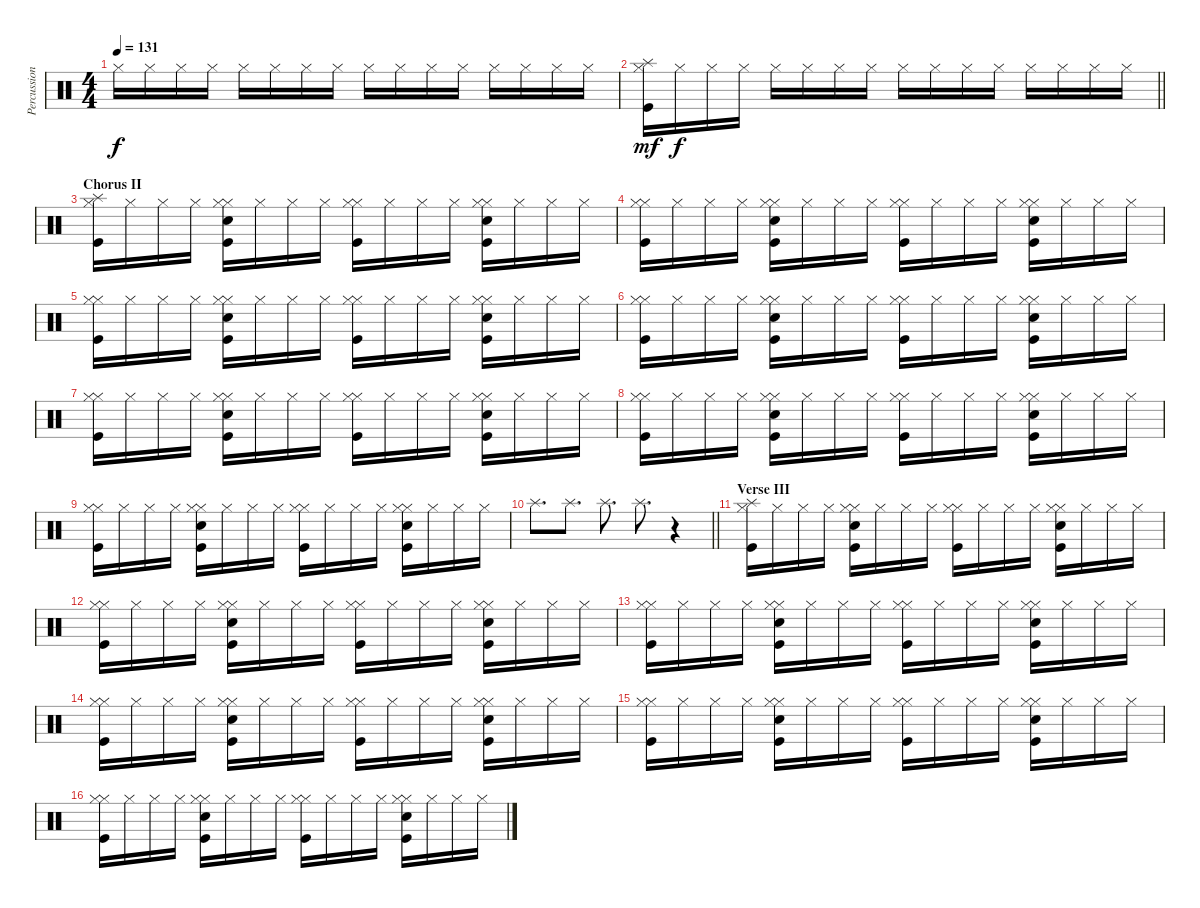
\track ("Percussion I" "Percussion") {instrument percussion}
\staff {score}
\articulation defaults
\ts (4 4)
\tempo 131
\clef neutral
\ks c "Hi-Hat (closed)".16{dy f} "Hi-Hat (closed)".16 "Hi-Hat (closed)".16 "Hi-Hat (closed)".16 "Hi-Hat (closed)".16 "Hi-Hat (closed)".16 "Hi-Hat (closed)".16 "Hi-Hat (closed)".16 "Hi-Hat (closed)".16 "Hi-Hat (closed)".16 "Hi-Hat (closed)".16 "Hi-Hat (closed)".16 "Hi-Hat (closed)".16 "Hi-Hat (closed)".16 "Hi-Hat (closed)".16 "Hi-Hat (closed)".16
|
\barLineRight lightlight
("Splash (hit)" "Hi-Hat (closed)" "Kick (hit)").16{dy mf} "Hi-Hat (closed)".16{dy f} "Hi-Hat (closed)".16 "Hi-Hat (closed)".16 "Hi-Hat (closed)".16 "Hi-Hat (closed)".16 "Hi-Hat (closed)".16 "Hi-Hat (closed)".16 "Hi-Hat (closed)".16 "Hi-Hat (closed)".16 "Hi-Hat (closed)".16 "Hi-Hat (closed)".16 "Hi-Hat (closed)".16 "Hi-Hat (closed)".16 "Hi-Hat (closed)".16 "Hi-Hat (closed)".16 |
\section ("" "Chorus II")
("Splash (hit)" "Hi-Hat (closed)" "Kick (hit)").16 "Hi-Hat (closed)".16 "Hi-Hat (closed)".16 "Hi-Hat (closed)".16 ("Hi-Hat (closed)" "Hand Clap (hit)" "Hi-Hat (closed)" "Kick (hit)").16 "Hi-Hat (closed)".16 "Hi-Hat (closed)".16 "Hi-Hat (closed)".16 ("Hi-Hat (closed)" "Hi-Hat (closed)" "Kick (hit)").16 "Hi-Hat (closed)".16 "Hi-Hat (closed)".16 "Hi-Hat (closed)".16 ("Hi-Hat (closed)" "Hand Clap (hit)" "Hi-Hat (closed)" "Kick (hit)").16 "Hi-Hat (closed)".16 "Hi-Hat (closed)".16 "Hi-Hat (closed)".16 |
("Hi-Hat (closed)" "Hi-Hat (closed)" "Kick (hit)").16 "Hi-Hat (closed)".16 "Hi-Hat (closed)".16 "Hi-Hat (closed)".16 ("Hi-Hat (closed)" "Hand Clap (hit)" "Hi-Hat (closed)" "Kick (hit)").16 "Hi-Hat (closed)".16 "Hi-Hat (closed)".16 "Hi-Hat (closed)".16 ("Hi-Hat (closed)" "Hi-Hat (closed)" "Kick (hit)").16 "Hi-Hat (closed)".16 "Hi-Hat (closed)".16 "Hi-Hat (closed)".16 ("Hi-Hat (closed)" "Hand Clap (hit)" "Hi-Hat (closed)" "Kick (hit)").16 "Hi-Hat (closed)".16 "Hi-Hat (closed)".16 "Hi-Hat (closed)".16 |
("Hi-Hat (closed)" "Hi-Hat (closed)" "Kick (hit)").16 "Hi-Hat (closed)".16 "Hi-Hat (closed)".16 "Hi-Hat (closed)".16 ("Hi-Hat (closed)" "Hand Clap (hit)" "Hi-Hat (closed)" "Kick (hit)").16 "Hi-Hat (closed)".16 "Hi-Hat (closed)".16 "Hi-Hat (closed)".16 ("Hi-Hat (closed)" "Hi-Hat (closed)" "Kick (hit)").16 "Hi-Hat (closed)".16 "Hi-Hat (closed)".16 "Hi-Hat (closed)".16 ("Hi-Hat (closed)" "Hand Clap (hit)" "Hi-Hat (closed)" "Kick (hit)").16 "Hi-Hat (closed)".16 "Hi-Hat (closed)".16 "Hi-Hat (closed)".16 |
("Hi-Hat (closed)" "Hi-Hat (closed)" "Kick (hit)").16 "Hi-Hat (closed)".16 "Hi-Hat (closed)".16 "Hi-Hat (closed)".16 ("Hi-Hat (closed)" "Hand Clap (hit)" "Hi-Hat (closed)" "Kick (hit)").16 "Hi-Hat (closed)".16 "Hi-Hat (closed)".16 "Hi-Hat (closed)".16 ("Hi-Hat (closed)" "Hi-Hat (closed)" "Kick (hit)").16 "Hi-Hat (closed)".16 "Hi-Hat (closed)".16 "Hi-Hat (closed)".16 ("Hi-Hat (closed)" "Hand Clap (hit)" "Hi-Hat (closed)" "Kick (hit)").16 "Hi-Hat (closed)".16 "Hi-Hat (closed)".16 "Hi-Hat (closed)".16 |
("Hi-Hat (closed)" "Hi-Hat (closed)" "Kick (hit)").16 "Hi-Hat (closed)".16 "Hi-Hat (closed)".16 "Hi-Hat (closed)".16 ("Hi-Hat (closed)" "Hand Clap (hit)" "Hi-Hat (closed)" "Kick (hit)").16 "Hi-Hat (closed)".16 "Hi-Hat (closed)".16 "Hi-Hat (closed)".16 ("Hi-Hat (closed)" "Hi-Hat (closed)" "Kick (hit)").16 "Hi-Hat (closed)".16 "Hi-Hat (closed)".16 "Hi-Hat (closed)".16 ("Hi-Hat (closed)" "Hand Clap (hit)" "Hi-Hat (closed)" "Kick (hit)").16 "Hi-Hat (closed)".16 "Hi-Hat (closed)".16 "Hi-Hat (closed)".16 |
("Hi-Hat (closed)" "Hi-Hat (closed)" "Kick (hit)").16 "Hi-Hat (closed)".16 "Hi-Hat (closed)".16 "Hi-Hat (closed)".16 ("Hi-Hat (closed)" "Hand Clap (hit)" "Hi-Hat (closed)" "Kick (hit)").16 "Hi-Hat (closed)".16 "Hi-Hat (closed)".16 "Hi-Hat (closed)".16 ("Hi-Hat (closed)" "Hi-Hat (closed)" "Kick (hit)").16 "Hi-Hat (closed)".16 "Hi-Hat (closed)".16 "Hi-Hat (closed)".16 ("Hi-Hat (closed)" "Hand Clap (hit)" "Hi-Hat (closed)" "Kick (hit)").16 "Hi-Hat (closed)".16 "Hi-Hat (closed)".16 "Hi-Hat (closed)".16 |
("Hi-Hat (closed)" "Hi-Hat (closed)" "Kick (hit)").16 "Hi-Hat (closed)".16 "Hi-Hat (closed)".16 "Hi-Hat (closed)".16 ("Hi-Hat (closed)" "Hand Clap (hit)" "Hi-Hat (closed)" "Kick (hit)").16 "Hi-Hat (closed)".16 "Hi-Hat (closed)".16 "Hi-Hat (closed)".16 ("Hi-Hat (closed)" "Hi-Hat (closed)" "Kick (hit)").16 "Hi-Hat (closed)".16 "Hi-Hat (closed)".16 "Hi-Hat (closed)".16 ("Hi-Hat (closed)" "Hand Clap (hit)" "Hi-Hat (closed)" "Kick (hit)").16 "Hi-Hat (closed)".16 "Hi-Hat (closed)".16 "Hi-Hat (closed)".16 |
\barLineRight lightlight "Splash (hit)".8{d} "Splash (hit)".8{d} "Splash (hit)".8{d} "Splash (hit)".8{d}
r.4 |
\section ("" "Verse III")
("Splash (hit)" "Hi-Hat (closed)" "Kick (hit)").16 "Hi-Hat (closed)".16 "Hi-Hat (closed)".16 "Hi-Hat (closed)".16 ("Hi-Hat (closed)" "Hand Clap (hit)" "Hi-Hat (closed)" "Kick (hit)").16 "Hi-Hat (closed)".16 "Hi-Hat (closed)".16 "Hi-Hat (closed)".16 ("Hi-Hat (closed)" "Hi-Hat (closed)" "Kick (hit)").16 "Hi-Hat (closed)".16 "Hi-Hat (closed)".16 "Hi-Hat (closed)".16 ("Hi-Hat (closed)" "Hand Clap (hit)" "Hi-Hat (closed)" "Kick (hit)").16 "Hi-Hat (closed)".16 "Hi-Hat (closed)".16 "Hi-Hat (closed)".16 |
("Hi-Hat (closed)" "Hi-Hat (closed)" "Kick (hit)").16 "Hi-Hat (closed)".16 "Hi-Hat (closed)".16 "Hi-Hat (closed)".16 ("Hi-Hat (closed)" "Hand Clap (hit)" "Hi-Hat (closed)" "Kick (hit)").16 "Hi-Hat (closed)".16 "Hi-Hat (closed)".16 "Hi-Hat (closed)".16 ("Hi-Hat (closed)" "Hi-Hat (closed)" "Kick (hit)").16 "Hi-Hat (closed)".16 "Hi-Hat (closed)".16 "Hi-Hat (closed)".16 ("Hi-Hat (closed)" "Hand Clap (hit)" "Hi-Hat (closed)" "Kick (hit)").16 "Hi-Hat (closed)".16 "Hi-Hat (closed)".16 "Hi-Hat (closed)".16 |
("Hi-Hat (closed)" "Hi-Hat (closed)" "Kick (hit)").16 "Hi-Hat (closed)".16 "Hi-Hat (closed)".16 "Hi-Hat (closed)".16 ("Hi-Hat (closed)" "Hand Clap (hit)" "Hi-Hat (closed)" "Kick (hit)").16 "Hi-Hat (closed)".16 "Hi-Hat (closed)".16 "Hi-Hat (closed)".16 ("Hi-Hat (closed)" "Hi-Hat (closed)" "Kick (hit)").16 "Hi-Hat (closed)".16 "Hi-Hat (closed)".16 "Hi-Hat (closed)".16 ("Hi-Hat (closed)" "Hand Clap (hit)" "Hi-Hat (closed)" "Kick (hit)").16 "Hi-Hat (closed)".16 "Hi-Hat (closed)".16 "Hi-Hat (closed)".16 |
("Hi-Hat (closed)" "Hi-Hat (closed)" "Kick (hit)").16 "Hi-Hat (closed)".16 "Hi-Hat (closed)".16 "Hi-Hat (closed)".16 ("Hi-Hat (closed)" "Hand Clap (hit)" "Hi-Hat (closed)" "Kick (hit)").16 "Hi-Hat (closed)".16 "Hi-Hat (closed)".16 "Hi-Hat (closed)".16 ("Hi-Hat (closed)" "Hi-Hat (closed)" "Kick (hit)").16 "Hi-Hat (closed)".16 "Hi-Hat (closed)".16 "Hi-Hat (closed)".16 ("Hi-Hat (closed)" "Hand Clap (hit)" "Hi-Hat (closed)" "Kick (hit)").16 "Hi-Hat (closed)".16 "Hi-Hat (closed)".16 "Hi-Hat (closed)".16 |
("Hi-Hat (closed)" "Hi-Hat (closed)" "Kick (hit)").16 "Hi-Hat (closed)".16 "Hi-Hat (closed)".16 "Hi-Hat (closed)".16 ("Hi-Hat (closed)" "Hand Clap (hit)" "Hi-Hat (closed)" "Kick (hit)").16 "Hi-Hat (closed)".16 "Hi-Hat (closed)".16 "Hi-Hat (closed)".16 ("Hi-Hat (closed)" "Hi-Hat (closed)" "Kick (hit)").16 "Hi-Hat (closed)".16 "Hi-Hat (closed)".16 "Hi-Hat (closed)".16 ("Hi-Hat (closed)" "Hand Clap (hit)" "Hi-Hat (closed)" "Kick (hit)").16 "Hi-Hat (closed)".16 "Hi-Hat (closed)".16 "Hi-Hat (closed)".16 |
("Hi-Hat (closed)" "Hi-Hat (closed)" "Kick (hit)").16 "Hi-Hat (closed)".16 "Hi-Hat (closed)".16 "Hi-Hat (closed)".16 ("Hi-Hat (closed)" "Hand Clap (hit)" "Hi-Hat (closed)" "Kick (hit)").16 "Hi-Hat (closed)".16 "Hi-Hat (closed)".16 "Hi-Hat (closed)".16 ("Hi-Hat (closed)" "Hi-Hat (closed)" "Kick (hit)").16 "Hi-Hat (closed)".16 "Hi-Hat (closed)".16 "Hi-Hat (closed)".16 ("Hi-Hat (closed)" "Hand Clap (hit)" "Hi-Hat (closed)" "Kick (hit)").16 "Hi-Hat (closed)".16 "Hi-Hat (closed)".16 "Hi-Hat (closed)".16
